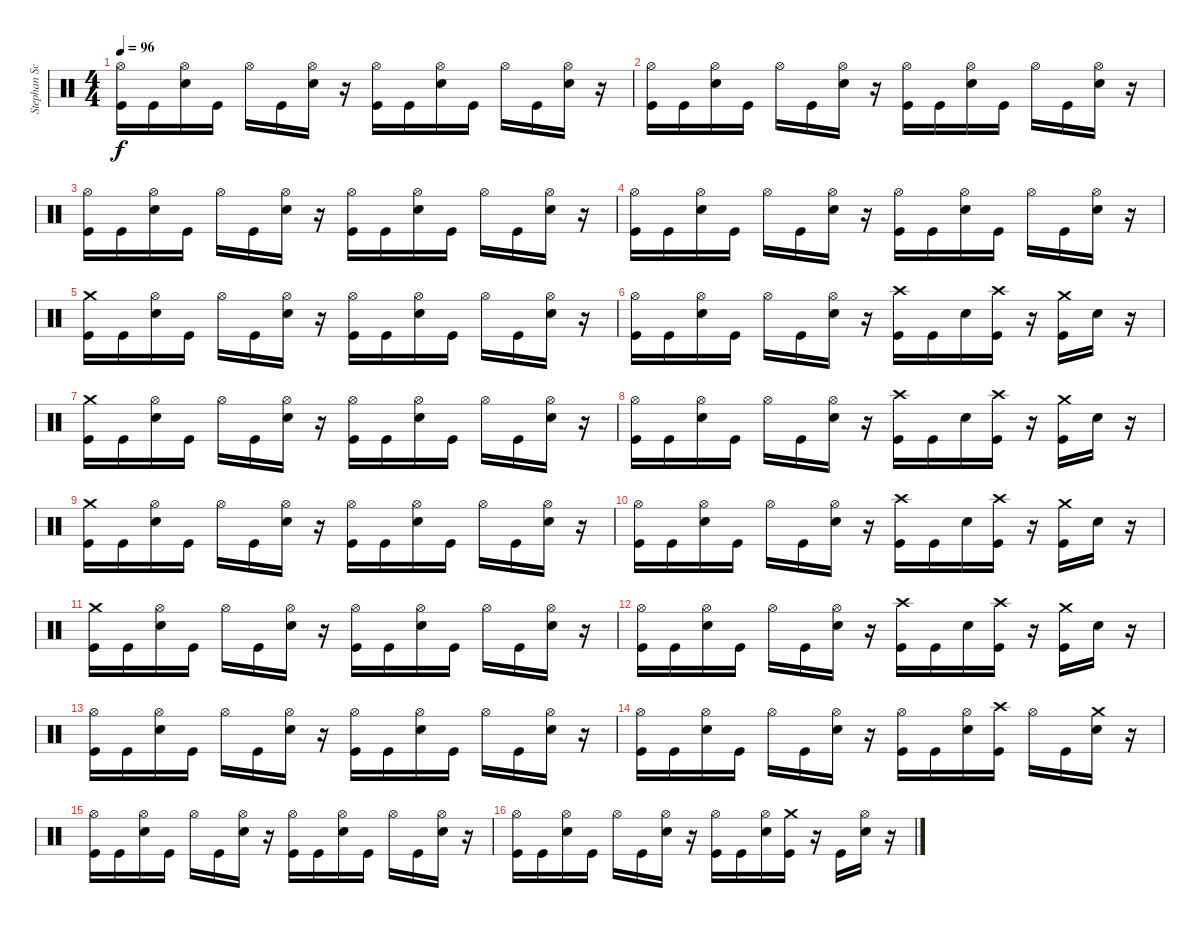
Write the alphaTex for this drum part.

\track ("Stephan Schwarzmann" "Stephan Sc") {instrument percussion}
\staff {score}
\articulation defaults
\ts (4 4)
\tempo 96
\clef neutral
\ks c
("Kick (hit)" "Hi-Hat (open)").16{dy f} "Kick (hit)".16 ("Snare (hit) 2" "Hi-Hat (open)").16 "Kick (hit)".16 "Hi-Hat (open)".16 "Kick (hit)".16 ("Hi-Hat (open)" "Snare (hit) 2").16 r.16 ("Hi-Hat (open)" "Kick (hit)").16 "Kick (hit)".16 ("Snare (hit) 2" "Hi-Hat (open)").16 "Kick (hit)".16 "Hi-Hat (open)".16 "Kick (hit)".16 ("Hi-Hat (open)" "Snare (hit) 2").16 r.16 |
("Kick (hit)" "Hi-Hat (open)").16 "Kick (hit)".16 ("Snare (hit) 2" "Hi-Hat (open)").16 "Kick (hit)".16 "Hi-Hat (open)".16 "Kick (hit)".16 ("Hi-Hat (open)" "Snare (hit) 2").16 r.16 ("Hi-Hat (open)" "Kick (hit)").16 "Kick (hit)".16 ("Snare (hit) 2" "Hi-Hat (open)").16 "Kick (hit)".16 "Hi-Hat (open)".16 "Kick (hit)".16 ("Hi-Hat (open)" "Snare (hit) 2").16 r.16 |
("Kick (hit)" "Hi-Hat (open)").16 "Kick (hit)".16 ("Snare (hit) 2" "Hi-Hat (open)").16 "Kick (hit)".16 "Hi-Hat (open)".16 "Kick (hit)".16 ("Hi-Hat (open)" "Snare (hit) 2").16 r.16 ("Hi-Hat (open)" "Kick (hit)").16 "Kick (hit)".16 ("Snare (hit) 2" "Hi-Hat (open)").16 "Kick (hit)".16 "Hi-Hat (open)".16 "Kick (hit)".16 ("Hi-Hat (open)" "Snare (hit) 2").16 r.16 |
("Kick (hit)" "Hi-Hat (open)").16 "Kick (hit)".16 ("Snare (hit) 2" "Hi-Hat (open)").16 "Kick (hit)".16 "Hi-Hat (open)".16 "Kick (hit)".16 ("Hi-Hat (open)" "Snare (hit) 2").16 r.16 ("Hi-Hat (open)" "Kick (hit)").16 "Kick (hit)".16 ("Snare (hit) 2" "Hi-Hat (open)").16 "Kick (hit)".16 "Hi-Hat (open)".16 "Kick (hit)".16 ("Hi-Hat (open)" "Snare (hit) 2").16 r.16 |
("Kick (hit)" "Crash medium (hit)").16 "Kick (hit)".16 ("Snare (hit) 2" "Hi-Hat (open)").16 "Kick (hit)".16 "Hi-Hat (open)".16 "Kick (hit)".16 ("Hi-Hat (open)" "Snare (hit) 2").16 r.16 ("Hi-Hat (open)" "Kick (hit)").16 "Kick (hit)".16 ("Snare (hit) 2" "Hi-Hat (open)").16 "Kick (hit)".16 "Hi-Hat (open)".16 "Kick (hit)".16 ("Hi-Hat (open)" "Snare (hit) 2").16 r.16 |
("Kick (hit)" "Hi-Hat (open)").16 "Kick (hit)".16 ("Snare (hit) 2" "Hi-Hat (open)").16 "Kick (hit)".16 "Hi-Hat (open)".16 "Kick (hit)".16 ("Hi-Hat (open)" "Snare (hit) 2").16 r.16 ("Kick (hit)" "Crash high (hit)").16 "Kick (hit)".16 "Snare (hit) 2".16 ("Kick (hit)" "Crash high (hit)").16 r.16 ("Kick (hit)" "Crash medium (hit)").16 "Snare (hit) 2".16 r.16 |
("Kick (hit)" "Crash medium (hit)").16 "Kick (hit)".16 ("Snare (hit) 2" "Hi-Hat (open)").16 "Kick (hit)".16 "Hi-Hat (open)".16 "Kick (hit)".16 ("Hi-Hat (open)" "Snare (hit) 2").16 r.16 ("Hi-Hat (open)" "Kick (hit)").16 "Kick (hit)".16 ("Snare (hit) 2" "Hi-Hat (open)").16 "Kick (hit)".16 "Hi-Hat (open)".16 "Kick (hit)".16 ("Hi-Hat (open)" "Snare (hit) 2").16 r.16 |
("Kick (hit)" "Hi-Hat (open)").16 "Kick (hit)".16 ("Snare (hit) 2" "Hi-Hat (open)").16 "Kick (hit)".16 "Hi-Hat (open)".16 "Kick (hit)".16 ("Hi-Hat (open)" "Snare (hit) 2").16 r.16 ("Kick (hit)" "Crash high (hit)").16 "Kick (hit)".16 "Snare (hit) 2".16 ("Kick (hit)" "Crash high (hit)").16 r.16 ("Kick (hit)" "Crash medium (hit)").16 "Snare (hit) 2".16 r.16 |
("Kick (hit)" "Crash medium (hit)").16 "Kick (hit)".16 ("Snare (hit) 2" "Hi-Hat (open)").16 "Kick (hit)".16 "Hi-Hat (open)".16 "Kick (hit)".16 ("Hi-Hat (open)" "Snare (hit) 2").16 r.16 ("Hi-Hat (open)" "Kick (hit)").16 "Kick (hit)".16 ("Snare (hit) 2" "Hi-Hat (open)").16 "Kick (hit)".16 "Hi-Hat (open)".16 "Kick (hit)".16 ("Hi-Hat (open)" "Snare (hit) 2").16 r.16 |
("Kick (hit)" "Hi-Hat (open)").16 "Kick (hit)".16 ("Snare (hit) 2" "Hi-Hat (open)").16 "Kick (hit)".16 "Hi-Hat (open)".16 "Kick (hit)".16 ("Hi-Hat (open)" "Snare (hit) 2").16 r.16 ("Kick (hit)" "Crash high (hit)").16 "Kick (hit)".16 "Snare (hit) 2".16 ("Kick (hit)" "Crash high (hit)").16 r.16 ("Kick (hit)" "Crash medium (hit)").16 "Snare (hit) 2".16 r.16 |
("Kick (hit)" "Crash medium (hit)").16 "Kick (hit)".16 ("Snare (hit) 2" "Hi-Hat (open)").16 "Kick (hit)".16 "Hi-Hat (open)".16 "Kick (hit)".16 ("Hi-Hat (open)" "Snare (hit) 2").16 r.16 ("Hi-Hat (open)" "Kick (hit)").16 "Kick (hit)".16 ("Snare (hit) 2" "Hi-Hat (open)").16 "Kick (hit)".16 "Hi-Hat (open)".16 "Kick (hit)".16 ("Hi-Hat (open)" "Snare (hit) 2").16 r.16 |
("Kick (hit)" "Hi-Hat (open)").16 "Kick (hit)".16 ("Snare (hit) 2" "Hi-Hat (open)").16 "Kick (hit)".16 "Hi-Hat (open)".16 "Kick (hit)".16 ("Hi-Hat (open)" "Snare (hit) 2").16 r.16 ("Kick (hit)" "Crash high (hit)").16 "Kick (hit)".16 "Snare (hit) 2".16 ("Kick (hit)" "Crash high (hit)").16 r.16 ("Kick (hit)" "Crash medium (hit)").16 "Snare (hit) 2".16 r.16 |
("Kick (hit)" "Hi-Hat (open)").16 "Kick (hit)".16 ("Snare (hit) 2" "Hi-Hat (open)").16 "Kick (hit)".16 "Hi-Hat (open)".16 "Kick (hit)".16 ("Hi-Hat (open)" "Snare (hit) 2").16 r.16 ("Hi-Hat (open)" "Kick (hit)").16 "Kick (hit)".16 ("Snare (hit) 2" "Hi-Hat (open)").16 "Kick (hit)".16 "Hi-Hat (open)".16 "Kick (hit)".16 ("Hi-Hat (open)" "Snare (hit) 2").16 r.16 |
("Kick (hit)" "Hi-Hat (open)").16 "Kick (hit)".16 ("Snare (hit) 2" "Hi-Hat (open)").16 "Kick (hit)".16 "Hi-Hat (open)".16 "Kick (hit)".16 ("Hi-Hat (open)" "Snare (hit) 2").16 r.16 ("Hi-Hat (open)" "Kick (hit)").16 "Kick (hit)".16 ("Snare (hit) 2" "Hi-Hat (open)").16 ("Kick (hit)" "Crash high (hit)").16 "Hi-Hat (open)".16 "Kick (hit)".16 ("Snare (hit) 2" "Crash medium (hit)").16 r.16 |
("Kick (hit)" "Hi-Hat (open)").16 "Kick (hit)".16 ("Snare (hit) 2" "Hi-Hat (open)").16 "Kick (hit)".16 "Hi-Hat (open)".16 "Kick (hit)".16 ("Hi-Hat (open)" "Snare (hit) 2").16 r.16 ("Hi-Hat (open)" "Kick (hit)").16 "Kick (hit)".16 ("Snare (hit) 2" "Hi-Hat (open)").16 "Kick (hit)".16 "Hi-Hat (open)".16 "Kick (hit)".16 ("Hi-Hat (open)" "Snare (hit) 2").16 r.16 |
("Kick (hit)" "Hi-Hat (open)").16 "Kick (hit)".16 ("Snare (hit) 2" "Hi-Hat (open)").16 "Kick (hit)".16 "Hi-Hat (open)".16 "Kick (hit)".16 ("Hi-Hat (open)" "Snare (hit) 2").16 r.16 ("Hi-Hat (open)" "Kick (hit)").16 "Kick (hit)".16 ("Snare (hit) 2" "Hi-Hat (open)").16 ("Kick (hit)" "Crash medium (hit)").16 r.16 "Kick (hit)".16 ("Hi-Hat (open)" "Snare (hit) 2").16 r.16
